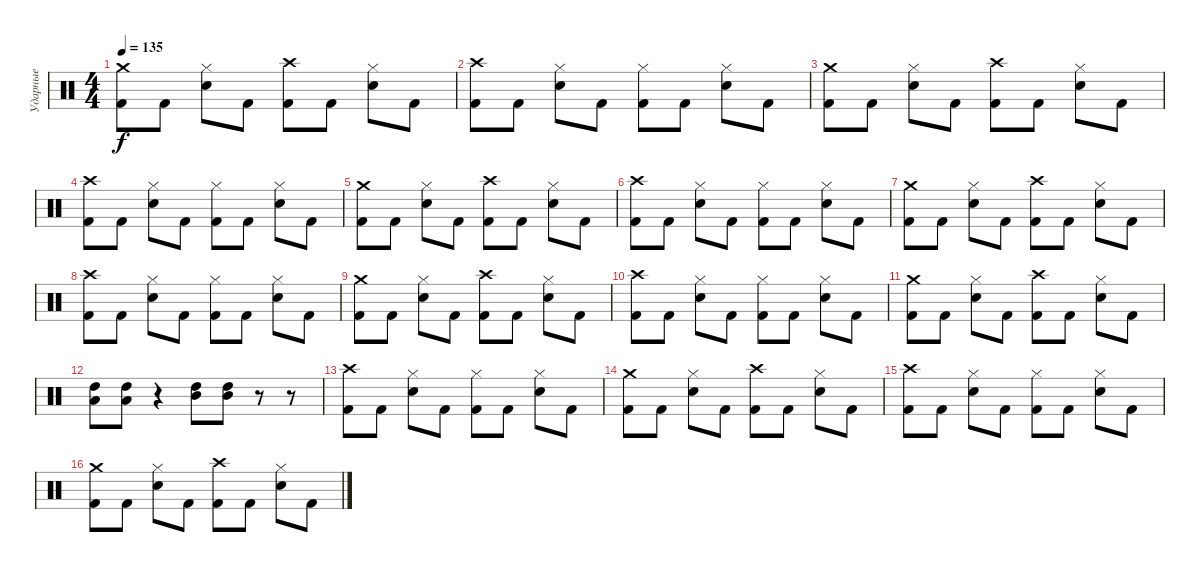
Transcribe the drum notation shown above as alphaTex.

\track ("Ударные" "Ударные") {solo instrument percussion}
\staff {score}
\articulation defaults
\ts (4 4)
\tempo 135
\clef neutral
\ks c
("Kick (hit) 2" "Crash medium (hit)").8{dy f} "Kick (hit) 2".8 ("Snare (hit) 2" "Hi-Hat (closed)").8 "Kick (hit) 2".8 ("Kick (hit) 2" "Crash high (hit)").8 "Kick (hit) 2".8 ("Snare (hit) 2" "Hi-Hat (closed)").8 "Kick (hit) 2".8 |
("Kick (hit) 2" "Crash high (hit)").8 "Kick (hit) 2".8 ("Snare (hit) 2" "Hi-Hat (closed)").8 "Kick (hit) 2".8 ("Kick (hit) 2" "Hi-Hat (closed)").8 "Kick (hit) 2".8 ("Snare (hit) 2" "Hi-Hat (closed)").8 "Kick (hit) 2".8 |
("Kick (hit) 2" "Crash medium (hit)").8 "Kick (hit) 2".8 ("Snare (hit) 2" "Hi-Hat (closed)").8 "Kick (hit) 2".8 ("Kick (hit) 2" "Crash high (hit)").8 "Kick (hit) 2".8 ("Snare (hit) 2" "Hi-Hat (closed)").8 "Kick (hit) 2".8 |
("Kick (hit) 2" "Crash high (hit)").8 "Kick (hit) 2".8 ("Snare (hit) 2" "Hi-Hat (closed)").8 "Kick (hit) 2".8 ("Kick (hit) 2" "Hi-Hat (closed)").8 "Kick (hit) 2".8 ("Snare (hit) 2" "Hi-Hat (closed)").8 "Kick (hit) 2".8 |
("Kick (hit) 2" "Crash medium (hit)").8 "Kick (hit) 2".8 ("Snare (hit) 2" "Hi-Hat (closed)").8 "Kick (hit) 2".8 ("Kick (hit) 2" "Crash high (hit)").8 "Kick (hit) 2".8 ("Snare (hit) 2" "Hi-Hat (closed)").8 "Kick (hit) 2".8 |
("Kick (hit) 2" "Crash high (hit)").8 "Kick (hit) 2".8 ("Snare (hit) 2" "Hi-Hat (closed)").8 "Kick (hit) 2".8 ("Kick (hit) 2" "Hi-Hat (closed)").8 "Kick (hit) 2".8 ("Snare (hit) 2" "Hi-Hat (closed)").8 "Kick (hit) 2".8 |
("Kick (hit) 2" "Crash medium (hit)").8 "Kick (hit) 2".8 ("Snare (hit) 2" "Hi-Hat (closed)").8 "Kick (hit) 2".8 ("Kick (hit) 2" "Crash high (hit)").8 "Kick (hit) 2".8 ("Snare (hit) 2" "Hi-Hat (closed)").8 "Kick (hit) 2".8 |
("Kick (hit) 2" "Crash high (hit)").8 "Kick (hit) 2".8 ("Snare (hit) 2" "Hi-Hat (closed)").8 "Kick (hit) 2".8 ("Kick (hit) 2" "Hi-Hat (closed)").8 "Kick (hit) 2".8 ("Snare (hit) 2" "Hi-Hat (closed)").8 "Kick (hit) 2".8 |
("Kick (hit) 2" "Crash medium (hit)").8 "Kick (hit) 2".8 ("Snare (hit) 2" "Hi-Hat (closed)").8 "Kick (hit) 2".8 ("Kick (hit) 2" "Crash high (hit)").8 "Kick (hit) 2".8 ("Snare (hit) 2" "Hi-Hat (closed)").8 "Kick (hit) 2".8 |
("Kick (hit) 2" "Crash high (hit)").8 "Kick (hit) 2".8 ("Snare (hit) 2" "Hi-Hat (closed)").8 "Kick (hit) 2".8 ("Kick (hit) 2" "Hi-Hat (closed)").8 "Kick (hit) 2".8 ("Snare (hit) 2" "Hi-Hat (closed)").8 "Kick (hit) 2".8 |
("Kick (hit) 2" "Crash medium (hit)").8 "Kick (hit) 2".8 ("Snare (hit) 2" "Hi-Hat (closed)").8 "Kick (hit) 2".8 ("Kick (hit) 2" "Crash high (hit)").8 "Kick (hit) 2".8 ("Snare (hit) 2" "Hi-Hat (closed)").8 "Kick (hit) 2".8 |
("Low Tom (hit)" "High Tom (hit)").8 ("Low Tom (hit)" "High Tom (hit)").8 r.4 ("Mid Tom (hit)" "High Tom (hit)").8 ("Mid Tom (hit)" "High Tom (hit)").8 r.8 r.8 |
("Kick (hit) 2" "Crash high (hit)").8 "Kick (hit) 2".8 ("Snare (hit) 2" "Hi-Hat (closed)").8 "Kick (hit) 2".8 ("Kick (hit) 2" "Hi-Hat (closed)").8 "Kick (hit) 2".8 ("Snare (hit) 2" "Hi-Hat (closed)").8 "Kick (hit) 2".8 |
("Kick (hit) 2" "Crash medium (hit)").8 "Kick (hit) 2".8 ("Snare (hit) 2" "Hi-Hat (closed)").8 "Kick (hit) 2".8 ("Kick (hit) 2" "Crash high (hit)").8 "Kick (hit) 2".8 ("Snare (hit) 2" "Hi-Hat (closed)").8 "Kick (hit) 2".8 |
("Kick (hit) 2" "Crash high (hit)").8 "Kick (hit) 2".8 ("Snare (hit) 2" "Hi-Hat (closed)").8 "Kick (hit) 2".8 ("Kick (hit) 2" "Hi-Hat (closed)").8 "Kick (hit) 2".8 ("Snare (hit) 2" "Hi-Hat (closed)").8 "Kick (hit) 2".8 |
("Kick (hit) 2" "Crash medium (hit)").8 "Kick (hit) 2".8 ("Snare (hit) 2" "Hi-Hat (closed)").8 "Kick (hit) 2".8 ("Kick (hit) 2" "Crash high (hit)").8 "Kick (hit) 2".8 ("Snare (hit) 2" "Hi-Hat (closed)").8 "Kick (hit) 2".8
